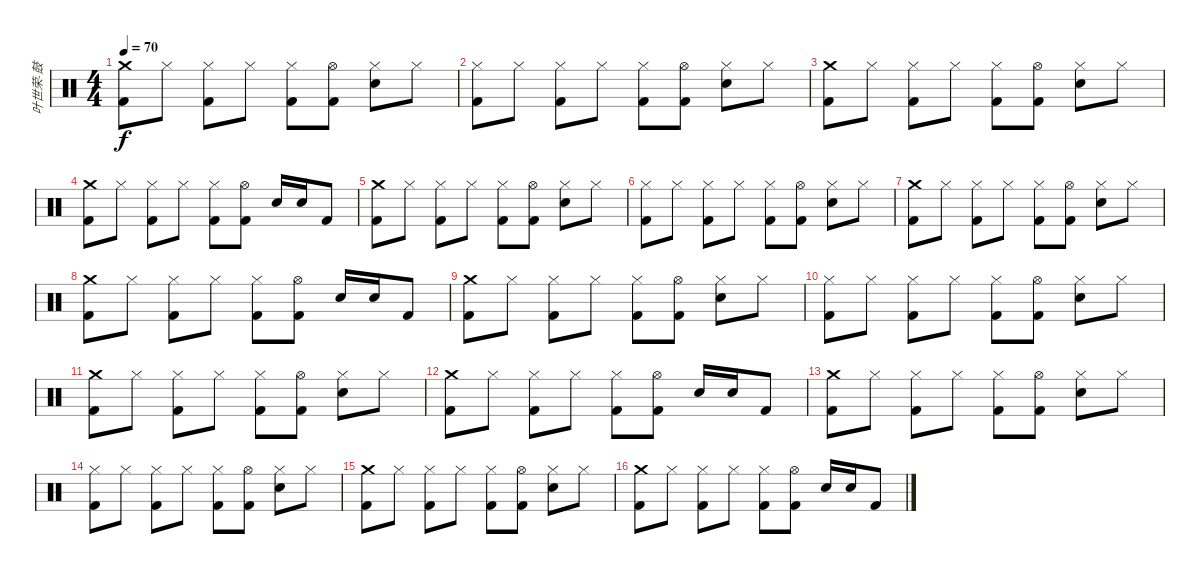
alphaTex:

\track ("叶世荣-鼓" "叶世荣-鼓") {instrument percussion}
\staff {score}
\articulation defaults
\ts (4 4)
\tempo 70
\clef neutral
\ks c
("Crash medium (hit)" "Kick (hit) 2").8{dy f} "Hi-Hat (closed)".8 ("Hi-Hat (closed)" "Kick (hit) 2").8 "Hi-Hat (closed)".8 ("Hi-Hat (closed)" "Kick (hit) 2").8 ("Hi-Hat (open)" "Kick (hit) 2").8 ("Hi-Hat (closed)" "Snare (hit) 2").8 "Hi-Hat (closed)".8 |
("Hi-Hat (closed)" "Kick (hit) 2").8 "Hi-Hat (closed)".8 ("Hi-Hat (closed)" "Kick (hit) 2").8 "Hi-Hat (closed)".8 ("Hi-Hat (closed)" "Kick (hit) 2").8 ("Hi-Hat (open)" "Kick (hit) 2").8 ("Hi-Hat (closed)" "Snare (hit) 2").8 "Hi-Hat (closed)".8 |
("Crash medium (hit)" "Kick (hit) 2").8 "Hi-Hat (closed)".8 ("Hi-Hat (closed)" "Kick (hit) 2").8 "Hi-Hat (closed)".8 ("Hi-Hat (closed)" "Kick (hit) 2").8 ("Hi-Hat (open)" "Kick (hit) 2").8 ("Hi-Hat (closed)" "Snare (hit) 2").8 "Hi-Hat (closed)".8 |
("Crash medium (hit)" "Kick (hit) 2").8 "Hi-Hat (closed)".8 ("Hi-Hat (closed)" "Kick (hit) 2").8 "Hi-Hat (closed)".8 ("Hi-Hat (closed)" "Kick (hit) 2").8 ("Hi-Hat (open)" "Kick (hit) 2").8 "Snare (hit) 2".16 "Snare (hit) 2".16 "Kick (hit) 2".8 |
("Crash medium (hit)" "Kick (hit) 2").8 "Hi-Hat (closed)".8 ("Hi-Hat (closed)" "Kick (hit) 2").8 "Hi-Hat (closed)".8 ("Hi-Hat (closed)" "Kick (hit) 2").8 ("Hi-Hat (open)" "Kick (hit) 2").8 ("Hi-Hat (closed)" "Snare (hit) 2").8 "Hi-Hat (closed)".8 |
("Hi-Hat (closed)" "Kick (hit) 2").8 "Hi-Hat (closed)".8 ("Hi-Hat (closed)" "Kick (hit) 2").8 "Hi-Hat (closed)".8 ("Hi-Hat (closed)" "Kick (hit) 2").8 ("Hi-Hat (open)" "Kick (hit) 2").8 ("Hi-Hat (closed)" "Snare (hit) 2").8 "Hi-Hat (closed)".8 |
("Crash medium (hit)" "Kick (hit) 2").8 "Hi-Hat (closed)".8 ("Hi-Hat (closed)" "Kick (hit) 2").8 "Hi-Hat (closed)".8 ("Hi-Hat (closed)" "Kick (hit) 2").8 ("Hi-Hat (open)" "Kick (hit) 2").8 ("Hi-Hat (closed)" "Snare (hit) 2").8 "Hi-Hat (closed)".8 |
("Crash medium (hit)" "Kick (hit) 2").8 "Hi-Hat (closed)".8 ("Hi-Hat (closed)" "Kick (hit) 2").8 "Hi-Hat (closed)".8 ("Hi-Hat (closed)" "Kick (hit) 2").8 ("Hi-Hat (open)" "Kick (hit) 2").8 "Snare (hit) 2".16 "Snare (hit) 2".16 "Kick (hit) 2".8 |
("Crash medium (hit)" "Kick (hit) 2").8 "Hi-Hat (closed)".8 ("Hi-Hat (closed)" "Kick (hit) 2").8 "Hi-Hat (closed)".8 ("Hi-Hat (closed)" "Kick (hit) 2").8 ("Hi-Hat (open)" "Kick (hit) 2").8 ("Hi-Hat (closed)" "Snare (hit) 2").8 "Hi-Hat (closed)".8 |
("Hi-Hat (closed)" "Kick (hit) 2").8 "Hi-Hat (closed)".8 ("Hi-Hat (closed)" "Kick (hit) 2").8 "Hi-Hat (closed)".8 ("Hi-Hat (closed)" "Kick (hit) 2").8 ("Hi-Hat (open)" "Kick (hit) 2").8 ("Hi-Hat (closed)" "Snare (hit) 2").8 "Hi-Hat (closed)".8 |
("Crash medium (hit)" "Kick (hit) 2").8 "Hi-Hat (closed)".8 ("Hi-Hat (closed)" "Kick (hit) 2").8 "Hi-Hat (closed)".8 ("Hi-Hat (closed)" "Kick (hit) 2").8 ("Hi-Hat (open)" "Kick (hit) 2").8 ("Hi-Hat (closed)" "Snare (hit) 2").8 "Hi-Hat (closed)".8 |
("Crash medium (hit)" "Kick (hit) 2").8 "Hi-Hat (closed)".8 ("Hi-Hat (closed)" "Kick (hit) 2").8 "Hi-Hat (closed)".8 ("Hi-Hat (closed)" "Kick (hit) 2").8 ("Hi-Hat (open)" "Kick (hit) 2").8 "Snare (hit) 2".16 "Snare (hit) 2".16 "Kick (hit) 2".8 |
("Crash medium (hit)" "Kick (hit) 2").8 "Hi-Hat (closed)".8 ("Hi-Hat (closed)" "Kick (hit) 2").8 "Hi-Hat (closed)".8 ("Hi-Hat (closed)" "Kick (hit) 2").8 ("Hi-Hat (open)" "Kick (hit) 2").8 ("Hi-Hat (closed)" "Snare (hit) 2").8 "Hi-Hat (closed)".8 |
("Hi-Hat (closed)" "Kick (hit) 2").8 "Hi-Hat (closed)".8 ("Hi-Hat (closed)" "Kick (hit) 2").8 "Hi-Hat (closed)".8 ("Hi-Hat (closed)" "Kick (hit) 2").8 ("Hi-Hat (open)" "Kick (hit) 2").8 ("Hi-Hat (closed)" "Snare (hit) 2").8 "Hi-Hat (closed)".8 |
("Crash medium (hit)" "Kick (hit) 2").8 "Hi-Hat (closed)".8 ("Hi-Hat (closed)" "Kick (hit) 2").8 "Hi-Hat (closed)".8 ("Hi-Hat (closed)" "Kick (hit) 2").8 ("Hi-Hat (open)" "Kick (hit) 2").8 ("Hi-Hat (closed)" "Snare (hit) 2").8 "Hi-Hat (closed)".8 |
("Crash medium (hit)" "Kick (hit) 2").8 "Hi-Hat (closed)".8 ("Hi-Hat (closed)" "Kick (hit) 2").8 "Hi-Hat (closed)".8 ("Hi-Hat (closed)" "Kick (hit) 2").8 ("Hi-Hat (open)" "Kick (hit) 2").8 "Snare (hit) 2".16 "Snare (hit) 2".16 "Kick (hit) 2".8
